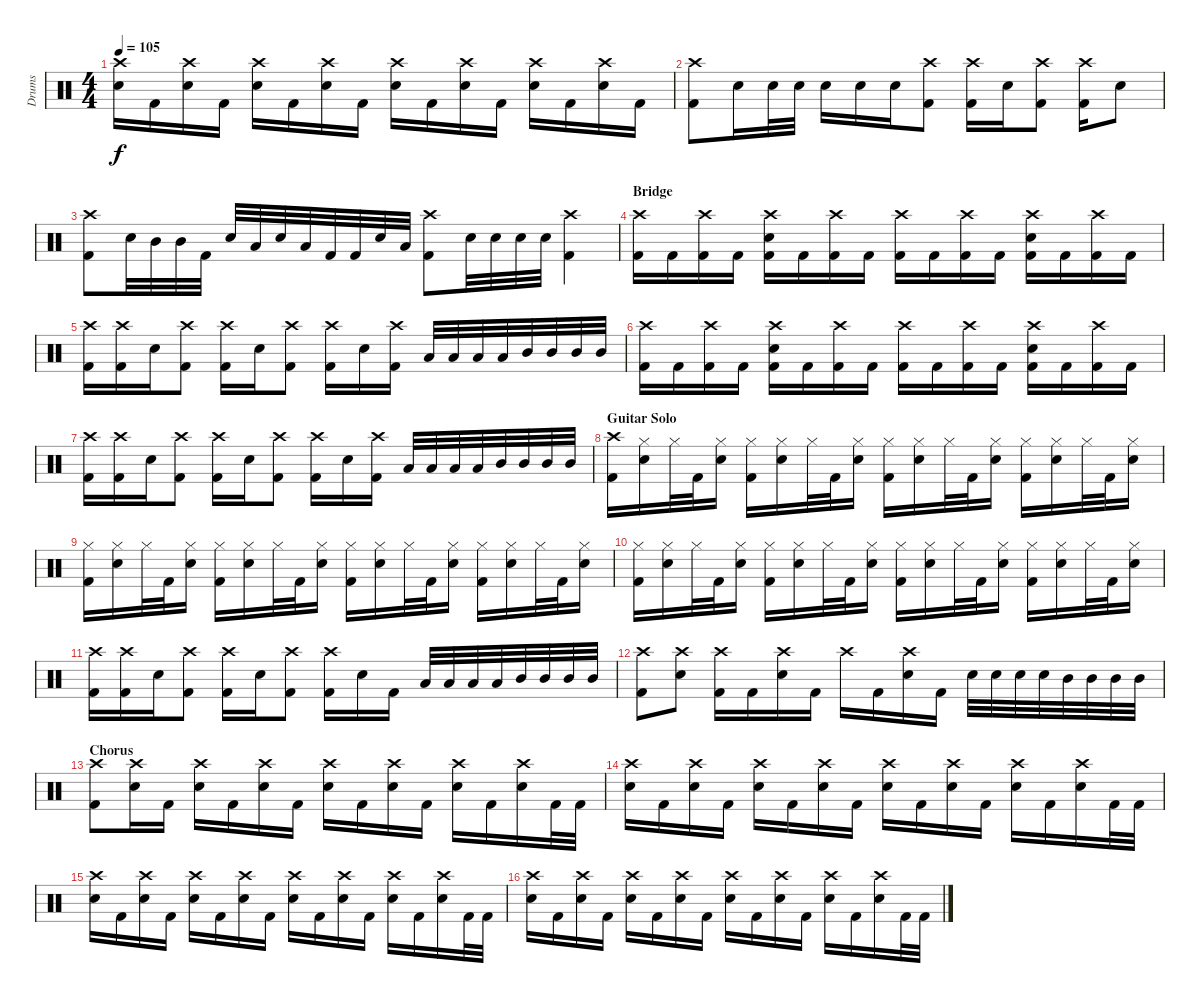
\track ("Drums" "Drums") {instrument percussion}
\staff {score}
\articulation defaults
\ts (4 4)
\tempo 105
\clef neutral
\ks c
("Crash high (hit)" "Electric Snare (hit)").16{dy f} "Kick (hit) 2".16 ("Crash high (hit)" "Electric Snare (hit)").16 "Kick (hit) 2".16 ("Crash high (hit)" "Electric Snare (hit)").16 "Kick (hit) 2".16 ("Crash high (hit)" "Electric Snare (hit)").16 "Kick (hit) 2".16 ("Crash high (hit)" "Electric Snare (hit)").16 "Kick (hit) 2".16 ("Crash high (hit)" "Electric Snare (hit)").16 "Kick (hit) 2".16 ("Crash high (hit)" "Electric Snare (hit)").16 "Kick (hit) 2".16 ("Crash high (hit)" "Electric Snare (hit)").16 "Kick (hit) 2".16 |
("Crash high (hit)" "Kick (hit) 2").8 "Electric Snare (hit)".16 "Electric Snare (hit)".32 "Electric Snare (hit)".32 "Electric Snare (hit)".16 "Electric Snare (hit)".16 "Electric Snare (hit)".16 ("Crash high (hit)" "Kick (hit) 2").8 ("Crash high (hit)" "Kick (hit) 2").16 "Electric Snare (hit)".16 ("Crash high (hit)" "Kick (hit) 2").8 ("Crash high (hit)" "Kick (hit) 2").16 "Electric Snare (hit)".8 |
("Crash high (hit)" "Kick (hit) 2").8 "Electric Snare (hit)".32 "Mid Tom (hit)".32 "Mid Tom (hit)".32 "Kick (hit) 2".32 "Electric Snare (hit)".32 "Low Tom (hit)".32 "Electric Snare (hit)".32 "Low Tom (hit)".32 "Kick (hit) 2".32 "Kick (hit) 2".32 "Electric Snare (hit)".32 "Low Tom (hit)".32 ("Crash high (hit)" "Kick (hit) 2").8 "Electric Snare (hit)".32 "Electric Snare (hit)".32 "Electric Snare (hit)".32 "Electric Snare (hit)".32 ("Crash high (hit)" "Kick (hit) 2").4 |
\section ("" "Bridge")
("Crash high (hit)" "Kick (hit) 2").16 "Kick (hit) 2".16 ("Crash high (hit)" "Kick (hit) 2").16 "Kick (hit) 2".16 ("Crash high (hit)" "Electric Snare (hit)" "Kick (hit) 2").16 "Kick (hit) 2".16 ("Crash high (hit)" "Kick (hit) 2").16 "Kick (hit) 2".16 ("Crash high (hit)" "Kick (hit) 2").16 "Kick (hit) 2".16 ("Crash high (hit)" "Kick (hit) 2").16 "Kick (hit) 2".16 ("Crash high (hit)" "Electric Snare (hit)" "Kick (hit) 2").16 "Kick (hit) 2".16 ("Crash high (hit)" "Kick (hit) 2").16 "Kick (hit) 2".16 |
("Crash high (hit)" "Kick (hit) 2").16 ("Crash high (hit)" "Kick (hit) 2").16 "Electric Snare (hit)".16 ("Crash high (hit)" "Kick (hit) 2").8 ("Crash high (hit)" "Kick (hit) 2").16 "Electric Snare (hit)".16 ("Crash high (hit)" "Kick (hit) 2").8 ("Crash high (hit)" "Kick (hit) 2").16 "Electric Snare (hit)".16 ("Crash high (hit)" "Kick (hit) 2").16 "Low Tom (hit)".32 "Low Tom (hit)".32 "Low Tom (hit)".32 "Low Tom (hit)".32 "Mid Tom (hit)".32 "Mid Tom (hit)".32 "Mid Tom (hit)".32 "Mid Tom (hit)".32 |
("Crash high (hit)" "Kick (hit) 2").16 "Kick (hit) 2".16 ("Crash high (hit)" "Kick (hit) 2").16 "Kick (hit) 2".16 ("Crash high (hit)" "Electric Snare (hit)" "Kick (hit) 2").16 "Kick (hit) 2".16 ("Crash high (hit)" "Kick (hit) 2").16 "Kick (hit) 2".16 ("Crash high (hit)" "Kick (hit) 2").16 "Kick (hit) 2".16 ("Crash high (hit)" "Kick (hit) 2").16 "Kick (hit) 2".16 ("Crash high (hit)" "Electric Snare (hit)" "Kick (hit) 2").16 "Kick (hit) 2".16 ("Crash high (hit)" "Kick (hit) 2").16 "Kick (hit) 2".16 |
("Crash high (hit)" "Kick (hit) 2").16 ("Crash high (hit)" "Kick (hit) 2").16 "Electric Snare (hit)".16 ("Crash high (hit)" "Kick (hit) 2").8 ("Crash high (hit)" "Kick (hit) 2").16 "Electric Snare (hit)".16 ("Crash high (hit)" "Kick (hit) 2").8 ("Crash high (hit)" "Kick (hit) 2").16 "Electric Snare (hit)".16 ("Crash high (hit)" "Kick (hit) 2").16 "Low Tom (hit)".32 "Low Tom (hit)".32 "Low Tom (hit)".32 "Low Tom (hit)".32 "Mid Tom (hit)".32 "Mid Tom (hit)".32 "Mid Tom (hit)".32 "Mid Tom (hit)".32 |
\section ("" "Guitar Solo")
("Crash high (hit)" "Kick (hit) 2").16 ("Hi-Hat (closed)" "Electric Snare (hit)").16 "Hi-Hat (closed)".32 "Kick (hit) 2".32 ("Hi-Hat (closed)" "Electric Snare (hit)").16 ("Hi-Hat (closed)" "Kick (hit) 2").16 ("Hi-Hat (closed)" "Electric Snare (hit)").16 "Hi-Hat (closed)".32 "Kick (hit) 2".32 ("Hi-Hat (closed)" "Electric Snare (hit)").16 ("Hi-Hat (closed)" "Kick (hit) 2").16 ("Hi-Hat (closed)" "Electric Snare (hit)").16 "Hi-Hat (closed)".32 "Kick (hit) 2".32 ("Hi-Hat (closed)" "Electric Snare (hit)").16 ("Hi-Hat (closed)" "Kick (hit) 2").16 ("Hi-Hat (closed)" "Electric Snare (hit)").16 "Hi-Hat (closed)".32 "Kick (hit) 2".32 ("Hi-Hat (closed)" "Electric Snare (hit)").16 |
("Hi-Hat (closed)" "Kick (hit) 2").16 ("Hi-Hat (closed)" "Electric Snare (hit)").16 "Hi-Hat (closed)".32 "Kick (hit) 2".32 ("Hi-Hat (closed)" "Electric Snare (hit)").16 ("Hi-Hat (closed)" "Kick (hit) 2").16 ("Hi-Hat (closed)" "Electric Snare (hit)").16 "Hi-Hat (closed)".32 "Kick (hit) 2".32 ("Hi-Hat (closed)" "Electric Snare (hit)").16 ("Hi-Hat (closed)" "Kick (hit) 2").16 ("Hi-Hat (closed)" "Electric Snare (hit)").16 "Hi-Hat (closed)".32 "Kick (hit) 2".32 ("Hi-Hat (closed)" "Electric Snare (hit)").16 ("Hi-Hat (closed)" "Kick (hit) 2").16 ("Hi-Hat (closed)" "Electric Snare (hit)").16 "Hi-Hat (closed)".32 "Kick (hit) 2".32 ("Hi-Hat (closed)" "Electric Snare (hit)").16 |
("Hi-Hat (closed)" "Kick (hit) 2").16 ("Hi-Hat (closed)" "Electric Snare (hit)").16 "Hi-Hat (closed)".32 "Kick (hit) 2".32 ("Hi-Hat (closed)" "Electric Snare (hit)").16 ("Hi-Hat (closed)" "Kick (hit) 2").16 ("Hi-Hat (closed)" "Electric Snare (hit)").16 "Hi-Hat (closed)".32 "Kick (hit) 2".32 ("Hi-Hat (closed)" "Electric Snare (hit)").16 ("Hi-Hat (closed)" "Kick (hit) 2").16 ("Hi-Hat (closed)" "Electric Snare (hit)").16 "Hi-Hat (closed)".32 "Kick (hit) 2".32 ("Hi-Hat (closed)" "Electric Snare (hit)").16 ("Hi-Hat (closed)" "Kick (hit) 2").16 ("Hi-Hat (closed)" "Electric Snare (hit)").16 "Hi-Hat (closed)".32 "Kick (hit) 2".32 ("Hi-Hat (closed)" "Electric Snare (hit)").16 |
("Crash high (hit)" "Kick (hit) 2").16 ("Crash high (hit)" "Kick (hit) 2").16 "Electric Snare (hit)".16 ("Crash high (hit)" "Kick (hit) 2").8 ("Crash high (hit)" "Kick (hit) 2").16 "Electric Snare (hit)".16 ("Crash high (hit)" "Kick (hit) 2").8 ("Crash high (hit)" "Kick (hit) 2").16 "Electric Snare (hit)".16 "Kick (hit) 2".16 "Low Tom (hit)".32 "Low Tom (hit)".32 "Low Tom (hit)".32 "Low Tom (hit)".32 "Mid Tom (hit)".32 "Mid Tom (hit)".32 "Mid Tom (hit)".32 "Mid Tom (hit)".32 |
("Crash high (hit)" "Kick (hit) 2").8 ("Crash high (hit)" "Electric Snare (hit)").8 ("Crash high (hit)" "Kick (hit) 2").16 "Kick (hit) 2".16 ("Crash high (hit)" "Electric Snare (hit)").16 "Kick (hit) 2".16 "Crash high (hit)".16 "Kick (hit) 2".16 ("Crash high (hit)" "Electric Snare (hit)").16 "Kick (hit) 2".16 "Electric Snare (hit)".32 "Electric Snare (hit)".32 "Electric Snare (hit)".32 "Electric Snare (hit)".32 "Mid Tom (hit)".32 "Mid Tom (hit)".32 "Mid Tom (hit)".32 "Mid Tom (hit)".32 |
\section ("" "Chorus")
("Crash high (hit)" "Kick (hit) 2").8 ("Crash high (hit)" "Electric Snare (hit)").16 "Kick (hit) 2".16 ("Crash high (hit)" "Electric Snare (hit)").16 "Kick (hit) 2".16 ("Crash high (hit)" "Electric Snare (hit)").16 "Kick (hit) 2".16 ("Crash high (hit)" "Electric Snare (hit)").16 "Kick (hit) 2".16 ("Crash high (hit)" "Electric Snare (hit)").16 "Kick (hit) 2".16 ("Crash high (hit)" "Electric Snare (hit)").16 "Kick (hit) 2".16 ("Crash high (hit)" "Electric Snare (hit)").16 "Kick (hit) 2".32 "Kick (hit) 2".32 |
("Crash high (hit)" "Electric Snare (hit)").16 "Kick (hit) 2".16 ("Crash high (hit)" "Electric Snare (hit)").16 "Kick (hit) 2".16 ("Crash high (hit)" "Electric Snare (hit)").16 "Kick (hit) 2".16 ("Crash high (hit)" "Electric Snare (hit)").16 "Kick (hit) 2".16 ("Crash high (hit)" "Electric Snare (hit)").16 "Kick (hit) 2".16 ("Crash high (hit)" "Electric Snare (hit)").16 "Kick (hit) 2".16 ("Crash high (hit)" "Electric Snare (hit)").16 "Kick (hit) 2".16 ("Crash high (hit)" "Electric Snare (hit)").16 "Kick (hit) 2".32 "Kick (hit) 2".32 |
("Crash high (hit)" "Electric Snare (hit)").16 "Kick (hit) 2".16 ("Crash high (hit)" "Electric Snare (hit)").16 "Kick (hit) 2".16 ("Crash high (hit)" "Electric Snare (hit)").16 "Kick (hit) 2".16 ("Crash high (hit)" "Electric Snare (hit)").16 "Kick (hit) 2".16 ("Crash high (hit)" "Electric Snare (hit)").16 "Kick (hit) 2".16 ("Crash high (hit)" "Electric Snare (hit)").16 "Kick (hit) 2".16 ("Crash high (hit)" "Electric Snare (hit)").16 "Kick (hit) 2".16 ("Crash high (hit)" "Electric Snare (hit)").16 "Kick (hit) 2".32 "Kick (hit) 2".32 |
("Crash high (hit)" "Electric Snare (hit)").16 "Kick (hit) 2".16 ("Crash high (hit)" "Electric Snare (hit)").16 "Kick (hit) 2".16 ("Crash high (hit)" "Electric Snare (hit)").16 "Kick (hit) 2".16 ("Crash high (hit)" "Electric Snare (hit)").16 "Kick (hit) 2".16 ("Crash high (hit)" "Electric Snare (hit)").16 "Kick (hit) 2".16 ("Crash high (hit)" "Electric Snare (hit)").16 "Kick (hit) 2".16 ("Crash high (hit)" "Electric Snare (hit)").16 "Kick (hit) 2".16 ("Crash high (hit)" "Electric Snare (hit)").16 "Kick (hit) 2".32 "Kick (hit) 2".32
